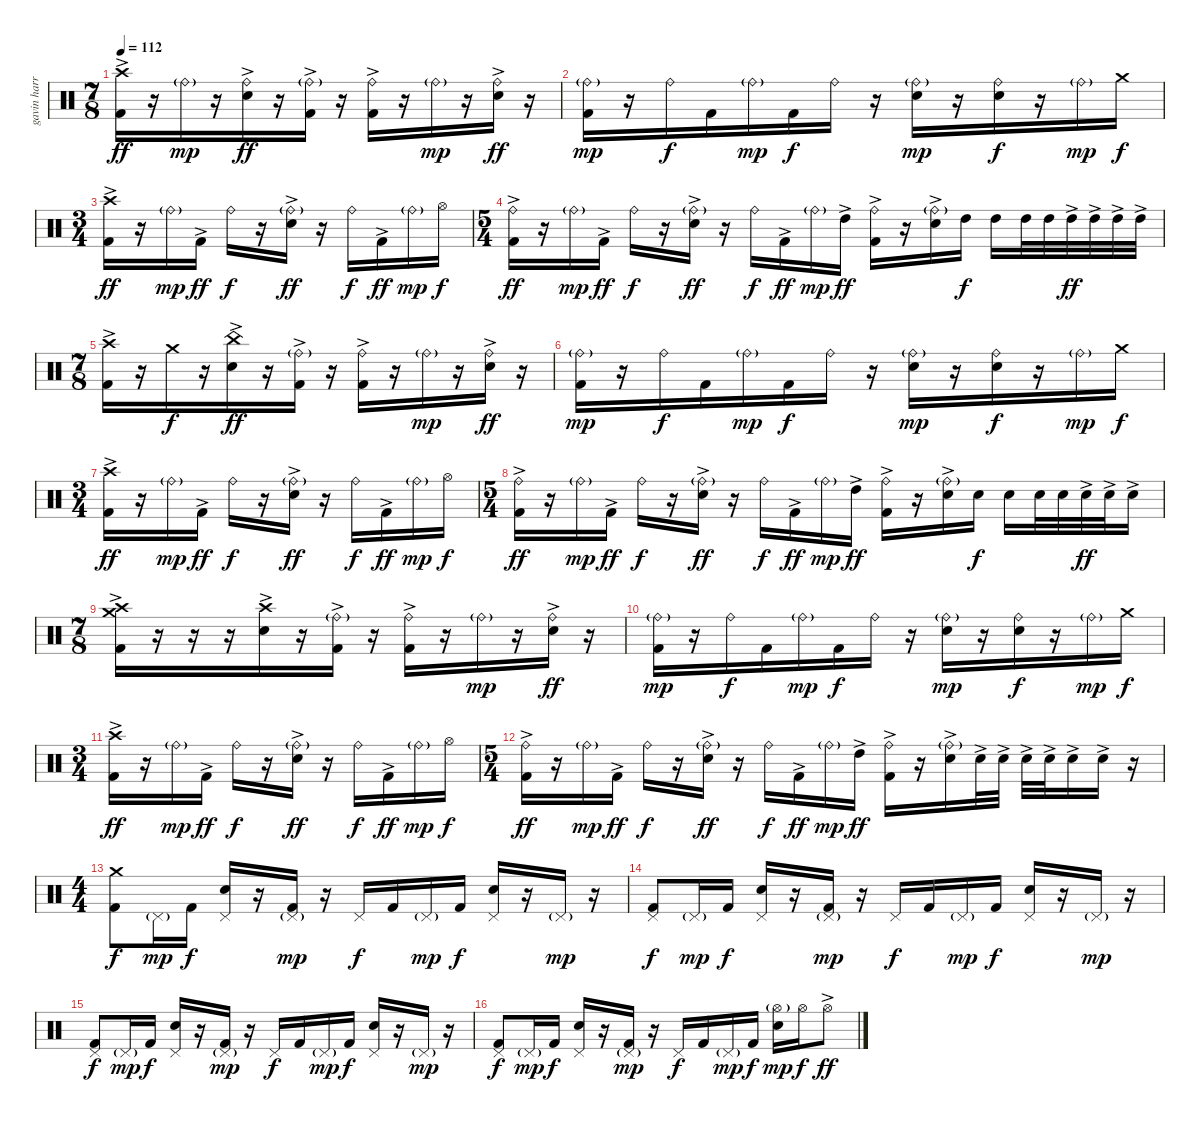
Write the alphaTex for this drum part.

\track ("gavin harrison" "gavin harr") {instrument percussion}
\staff {score}
\articulation defaults
\ts (7 8)
\tempo 112
\clef neutral
\ks c
("Crash high (hit)" "Kick (hit) 2"{ac}).16{dy ff} r.16 "Ride (bell)"{g}.16{dy mp} r.16 ("Ride (bell)" "Electric Snare (hit)"{ac}).16{dy ff} r.16 ("Ride (bell)"{g} "Kick (hit) 2"{ac}).16 r.16 ("Ride (bell)" "Kick (hit) 2"{ac}).16 r.16 "Ride (bell)"{g}.16{dy mp} r.16 ("Ride (bell)" "Electric Snare (hit)"{ac}).16{dy ff} r.16 |
("Ride (bell)"{g} "Kick (hit) 2").16{dy mp} r.16 "Ride (bell)".16{dy f} "Kick (hit) 2".16 "Ride (bell)"{g}.16{dy mp} "Kick (hit) 2".16{dy f} "Ride (bell)".16 r.16 ("Ride (bell)"{g} "Electric Snare (hit)").16{dy mp} r.16 ("Ride (bell)" "Electric Snare (hit)").16{dy f} r.16 "Ride (bell)"{g}.16{dy mp} "Crash medium (hit)".16{dy f} |
\ts (3 4)
("Crash high (hit)" "Kick (hit) 2"{ac}).16{dy ff} r.16 "Ride (bell)"{g}.16{dy mp} "Kick (hit) 2"{ac}.16{dy ff} "Ride (bell)".16{dy f} r.16 ("Ride (bell)"{g} "Electric Snare (hit)"{ac}).16{dy ff} r.16 "Ride (bell)".16{dy f} "Kick (hit) 2"{ac}.16{dy ff} "Ride (bell)"{g}.16{dy mp} "Hi-Hat (open)".16{dy f} |
\ts (5 4)
("Ride (bell)" "Kick (hit) 2"{ac}).16{dy ff} r.16 "Ride (bell)"{g}.16{dy mp} "Kick (hit) 2"{ac}.16{dy ff} "Ride (bell)".16{dy f} r.16 ("Ride (bell)"{g} "Electric Snare (hit)"{ac}).16{dy ff} r.16 "Ride (bell)".16{dy f} "Kick (hit) 2"{ac}.16{dy ff} "Ride (bell)"{g}.16{dy mp} "High Tom (hit)"{ac}.16{dy ff} ("Ride (bell)" "Kick (hit) 2"{ac}).16 r.16 ("Ride (bell)"{g} "Electric Snare (hit)"{ac}).16 "High Tom (hit)".16{dy f} "High Tom (hit)".16 "High Tom (hit)".32 "High Tom (hit)".32 "High Tom (hit)"{ac}.32{dy ff} "High Tom (hit)"{ac}.32 "High Tom (hit)"{ac}.32 "High Tom (hit)"{ac}.32 |
\ts (7 8)
("Crash high (hit)" "Kick (hit) 2"{ac}).16 r.16 "Crash medium (hit)".16{dy f} r.16 ("China (hit)" "Electric Snare (hit)"{ac}).16{dy ff} r.16 ("Ride (bell)"{g} "Kick (hit) 2"{ac}).16 r.16 ("Ride (bell)" "Kick (hit) 2"{ac}).16 r.16 "Ride (bell)"{g}.16{dy mp} r.16 ("Ride (bell)" "Electric Snare (hit)"{ac}).16{dy ff} r.16 |
("Ride (bell)"{g} "Kick (hit) 2").16{dy mp} r.16 "Ride (bell)".16{dy f} "Kick (hit) 2".16 "Ride (bell)"{g}.16{dy mp} "Kick (hit) 2".16{dy f} "Ride (bell)".16 r.16 ("Ride (bell)"{g} "Electric Snare (hit)").16{dy mp} r.16 ("Ride (bell)" "Electric Snare (hit)").16{dy f} r.16 "Ride (bell)"{g}.16{dy mp} "Crash medium (hit)".16{dy f} |
\ts (3 4)
("Crash high (hit)" "Kick (hit) 2"{ac}).16{dy ff} r.16 "Ride (bell)"{g}.16{dy mp} "Kick (hit) 2"{ac}.16{dy ff} "Ride (bell)".16{dy f} r.16 ("Ride (bell)"{g} "Electric Snare (hit)"{ac}).16{dy ff} r.16 "Ride (bell)".16{dy f} "Kick (hit) 2"{ac}.16{dy ff} "Ride (bell)"{g}.16{dy mp} "Hi-Hat (open)".16{dy f} |
\ts (5 4)
("Ride (bell)" "Kick (hit) 2"{ac}).16{dy ff} r.16 "Ride (bell)"{g}.16{dy mp} "Kick (hit) 2"{ac}.16{dy ff} "Ride (bell)".16{dy f} r.16 ("Ride (bell)"{g} "Electric Snare (hit)"{ac}).16{dy ff} r.16 "Ride (bell)".16{dy f} "Kick (hit) 2"{ac}.16{dy ff} "Ride (bell)"{g}.16{dy mp} "High Tom (hit)"{ac}.16{dy ff} ("Ride (bell)" "Kick (hit) 2"{ac}).16 r.16 ("Ride (bell)"{g} "Electric Snare (hit)"{ac}).16 "Electric Snare (hit)".16{dy f} "Electric Snare (hit)".16 "Electric Snare (hit)".32 "Electric Snare (hit)".32 "Electric Snare (hit)"{ac}.32{dy ff} "Electric Snare (hit)"{ac}.32 "Electric Snare (hit)"{ac}.16 |
\ts (7 8)
("Crash high (hit)" "Crash medium (hit)" "Kick (hit) 2"{ac}).16 r.16 r.16 r.16 ("Crash high (hit)" "Electric Snare (hit)"{ac}).16 r.16 ("Ride (bell)"{g} "Kick (hit) 2"{ac}).16 r.16 ("Ride (bell)" "Kick (hit) 2"{ac}).16 r.16 "Ride (bell)"{g}.16{dy mp} r.16 ("Ride (bell)" "Electric Snare (hit)"{ac}).16{dy ff} r.16 |
("Ride (bell)"{g} "Kick (hit) 2").16{dy mp} r.16 "Ride (bell)".16{dy f} "Kick (hit) 2".16 "Ride (bell)"{g}.16{dy mp} "Kick (hit) 2".16{dy f} "Ride (bell)".16 r.16 ("Ride (bell)"{g} "Electric Snare (hit)").16{dy mp} r.16 ("Ride (bell)" "Electric Snare (hit)").16{dy f} r.16 "Ride (bell)"{g}.16{dy mp} "Crash medium (hit)".16{dy f} |
\ts (3 4)
("Crash high (hit)" "Kick (hit) 2"{ac}).16{dy ff} r.16 "Ride (bell)"{g}.16{dy mp} "Kick (hit) 2"{ac}.16{dy ff} "Ride (bell)".16{dy f} r.16 ("Ride (bell)"{g} "Electric Snare (hit)"{ac}).16{dy ff} r.16 "Ride (bell)".16{dy f} "Kick (hit) 2"{ac}.16{dy ff} "Ride (bell)"{g}.16{dy mp} "Hi-Hat (open)".16{dy f} |
\ts (5 4)
("Ride (bell)" "Kick (hit) 2"{ac}).16{dy ff} r.16 "Ride (bell)"{g}.16{dy mp} "Kick (hit) 2"{ac}.16{dy ff} "Ride (bell)".16{dy f} r.16 ("Ride (bell)"{g} "Electric Snare (hit)"{ac}).16{dy ff} r.16 "Ride (bell)".16{dy f} "Kick (hit) 2"{ac}.16{dy ff} "Ride (bell)"{g}.16{dy mp} "High Tom (hit)"{ac}.16{dy ff} ("Ride (bell)" "Kick (hit) 2"{ac}).16 r.16 ("Ride (bell)"{g} "Electric Snare (hit)"{ac}).16 "Electric Snare (hit)"{ac}.32 "Electric Snare (hit)"{ac}.32 "Electric Snare (hit)"{ac}.32 "Electric Snare (hit)"{ac}.32 "Electric Snare (hit)"{ac}.16 "Electric Snare (hit)"{ac}.16 r.16 |
\ts (4 4)
("Crash medium (hit)" "Kick (hit) 2").8{dy f} "Pedal Hi-Hat (hit)"{g}.16{dy mp} "Kick (hit) 2".16{dy f} ("Pedal Hi-Hat (hit)" "Electric Snare (hit)").16 r.16 ("Pedal Hi-Hat (hit)"{g} "Kick (hit) 2").16{dy mp} r.16 "Pedal Hi-Hat (hit)".16{dy f} "Kick (hit) 2".16 "Pedal Hi-Hat (hit)"{g}.16{dy mp} "Kick (hit) 2".16{dy f} ("Pedal Hi-Hat (hit)" "Electric Snare (hit)").16 r.16 "Pedal Hi-Hat (hit)"{g}.16{dy mp} r.16 |
("Pedal Hi-Hat (hit)" "Kick (hit) 2").8{dy f} "Pedal Hi-Hat (hit)"{g}.16{dy mp} "Kick (hit) 2".16{dy f} ("Pedal Hi-Hat (hit)" "Electric Snare (hit)").16 r.16 ("Pedal Hi-Hat (hit)"{g} "Kick (hit) 2").16{dy mp} r.16 "Pedal Hi-Hat (hit)".16{dy f} "Kick (hit) 2".16 "Pedal Hi-Hat (hit)"{g}.16{dy mp} "Kick (hit) 2".16{dy f} ("Pedal Hi-Hat (hit)" "Electric Snare (hit)").16 r.16 "Pedal Hi-Hat (hit)"{g}.16{dy mp} r.16 |
("Pedal Hi-Hat (hit)" "Kick (hit) 2").8{dy f} "Pedal Hi-Hat (hit)"{g}.16{dy mp} "Kick (hit) 2".16{dy f} ("Pedal Hi-Hat (hit)" "Electric Snare (hit)").16 r.16 ("Pedal Hi-Hat (hit)"{g} "Kick (hit) 2").16{dy mp} r.16 "Pedal Hi-Hat (hit)".16{dy f} "Kick (hit) 2".16 "Pedal Hi-Hat (hit)"{g}.16{dy mp} "Kick (hit) 2".16{dy f} ("Pedal Hi-Hat (hit)" "Electric Snare (hit)").16 r.16 "Pedal Hi-Hat (hit)"{g}.16{dy mp} r.16 |
("Pedal Hi-Hat (hit)" "Kick (hit) 2").8{dy f} "Pedal Hi-Hat (hit)"{g}.16{dy mp} "Kick (hit) 2".16{dy f} ("Pedal Hi-Hat (hit)" "Electric Snare (hit)").16 r.16 ("Pedal Hi-Hat (hit)"{g} "Kick (hit) 2").16{dy mp} r.16 "Pedal Hi-Hat (hit)".16{dy f} "Kick (hit) 2".16 "Pedal Hi-Hat (hit)"{g}.16{dy mp} "Kick (hit) 2".16{dy f} ("Hi-Hat (open)"{g} "Electric Snare (hit)").16{dy mp} "Hi-Hat (open)".16{dy f} "Hi-Hat (open)"{ac}.8{dy ff}
